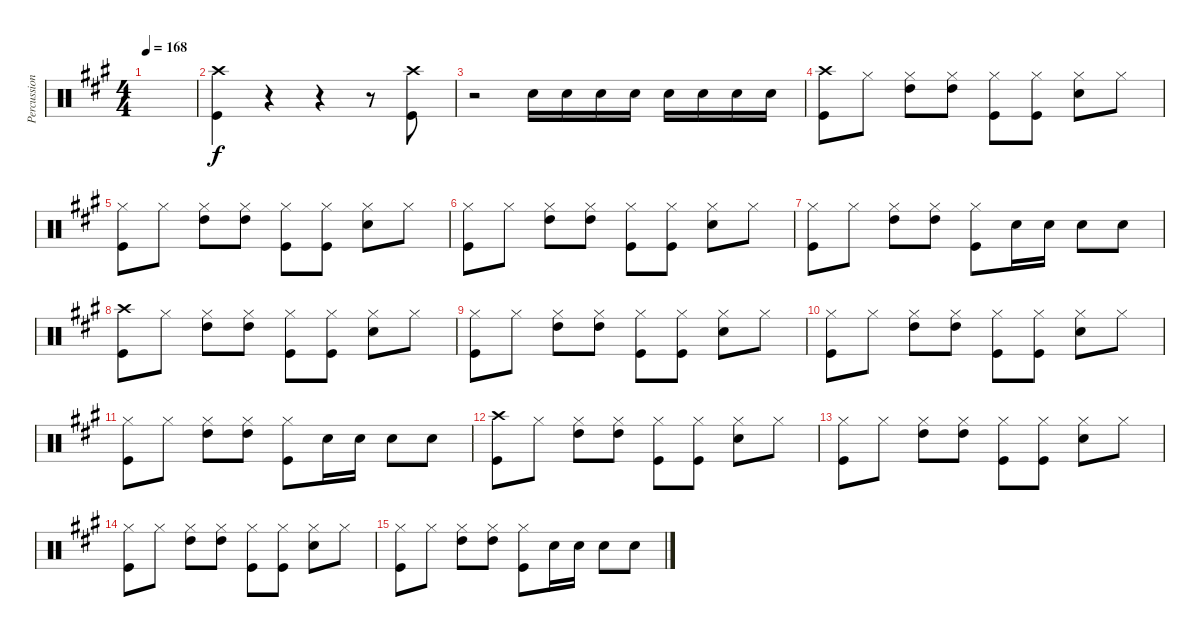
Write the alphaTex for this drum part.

\track ("Percussion" "Percussion") {instrument percussion}
\staff {score}
\articulation defaults
\ts (4 4)
\tempo 168
\clef neutral
\ks a
|
("Crash high (hit)" "Kick (hit)").4 r.4 r.4 r.8 ("Crash high (hit)" "Kick (hit)").8 |
r.2 "Snare (hit) 2".16 "Snare (hit) 2".16 "Snare (hit) 2".16 "Snare (hit) 2".16 "Snare (hit) 2".16 "Snare (hit) 2".16 "Snare (hit) 2".16 "Snare (hit) 2".16 |
("Crash high (hit)" "Kick (hit)").8 "Hi-Hat (closed)".8 ("Hi-Hat (closed)" "High Tom (hit)").8 ("Hi-Hat (closed)" "High Tom (hit)").8 ("Hi-Hat (closed)" "Kick (hit)").8 ("Hi-Hat (closed)" "Kick (hit)").8 ("Hi-Hat (closed)" "Snare (hit) 2").8 "Hi-Hat (closed)".8 |
("Hi-Hat (closed)" "Kick (hit)").8 "Hi-Hat (closed)".8 ("Hi-Hat (closed)" "High Tom (hit)").8 ("Hi-Hat (closed)" "High Tom (hit)").8 ("Hi-Hat (closed)" "Kick (hit)").8 ("Hi-Hat (closed)" "Kick (hit)").8 ("Hi-Hat (closed)" "Snare (hit) 2").8 "Hi-Hat (closed)".8 |
("Hi-Hat (closed)" "Kick (hit)").8 "Hi-Hat (closed)".8 ("Hi-Hat (closed)" "High Tom (hit)").8 ("Hi-Hat (closed)" "High Tom (hit)").8 ("Hi-Hat (closed)" "Kick (hit)").8 ("Hi-Hat (closed)" "Kick (hit)").8 ("Hi-Hat (closed)" "Snare (hit) 2").8 "Hi-Hat (closed)".8 |
("Hi-Hat (closed)" "Kick (hit)").8 "Hi-Hat (closed)".8 ("Hi-Hat (closed)" "High Tom (hit)").8 ("Hi-Hat (closed)" "High Tom (hit)").8 ("Hi-Hat (closed)" "Kick (hit)").8 "Snare (hit) 2".16 "Snare (hit) 2".16 "Snare (hit) 2".8 "Snare (hit) 2".8 |
("Crash high (hit)" "Kick (hit)").8 "Hi-Hat (closed)".8 ("Hi-Hat (closed)" "High Tom (hit)").8 ("Hi-Hat (closed)" "High Tom (hit)").8 ("Hi-Hat (closed)" "Kick (hit)").8 ("Hi-Hat (closed)" "Kick (hit)").8 ("Hi-Hat (closed)" "Snare (hit) 2").8 "Hi-Hat (closed)".8 |
("Hi-Hat (closed)" "Kick (hit)").8 "Hi-Hat (closed)".8 ("Hi-Hat (closed)" "High Tom (hit)").8 ("Hi-Hat (closed)" "High Tom (hit)").8 ("Hi-Hat (closed)" "Kick (hit)").8 ("Hi-Hat (closed)" "Kick (hit)").8 ("Hi-Hat (closed)" "Snare (hit) 2").8 "Hi-Hat (closed)".8 |
("Hi-Hat (closed)" "Kick (hit)").8 "Hi-Hat (closed)".8 ("Hi-Hat (closed)" "High Tom (hit)").8 ("Hi-Hat (closed)" "High Tom (hit)").8 ("Hi-Hat (closed)" "Kick (hit)").8 ("Hi-Hat (closed)" "Kick (hit)").8 ("Hi-Hat (closed)" "Snare (hit) 2").8 "Hi-Hat (closed)".8 |
("Hi-Hat (closed)" "Kick (hit)").8 "Hi-Hat (closed)".8 ("Hi-Hat (closed)" "High Tom (hit)").8 ("Hi-Hat (closed)" "High Tom (hit)").8 ("Hi-Hat (closed)" "Kick (hit)").8 "Snare (hit) 2".16 "Snare (hit) 2".16 "Snare (hit) 2".8 "Snare (hit) 2".8 |
("Crash high (hit)" "Kick (hit)").8 "Hi-Hat (closed)".8 ("Hi-Hat (closed)" "High Tom (hit)").8 ("Hi-Hat (closed)" "High Tom (hit)").8 ("Hi-Hat (closed)" "Kick (hit)").8 ("Hi-Hat (closed)" "Kick (hit)").8 ("Hi-Hat (closed)" "Snare (hit) 2").8 "Hi-Hat (closed)".8 |
("Hi-Hat (closed)" "Kick (hit)").8 "Hi-Hat (closed)".8 ("Hi-Hat (closed)" "High Tom (hit)").8 ("Hi-Hat (closed)" "High Tom (hit)").8 ("Hi-Hat (closed)" "Kick (hit)").8 ("Hi-Hat (closed)" "Kick (hit)").8 ("Hi-Hat (closed)" "Snare (hit) 2").8 "Hi-Hat (closed)".8 |
("Hi-Hat (closed)" "Kick (hit)").8 "Hi-Hat (closed)".8 ("Hi-Hat (closed)" "High Tom (hit)").8 ("Hi-Hat (closed)" "High Tom (hit)").8 ("Hi-Hat (closed)" "Kick (hit)").8 ("Hi-Hat (closed)" "Kick (hit)").8 ("Hi-Hat (closed)" "Snare (hit) 2").8 "Hi-Hat (closed)".8 |
("Hi-Hat (closed)" "Kick (hit)").8 "Hi-Hat (closed)".8 ("Hi-Hat (closed)" "High Tom (hit)").8 ("Hi-Hat (closed)" "High Tom (hit)").8 ("Hi-Hat (closed)" "Kick (hit)").8 "Snare (hit) 2".16 "Snare (hit) 2".16 "Snare (hit) 2".8 "Snare (hit) 2".8
